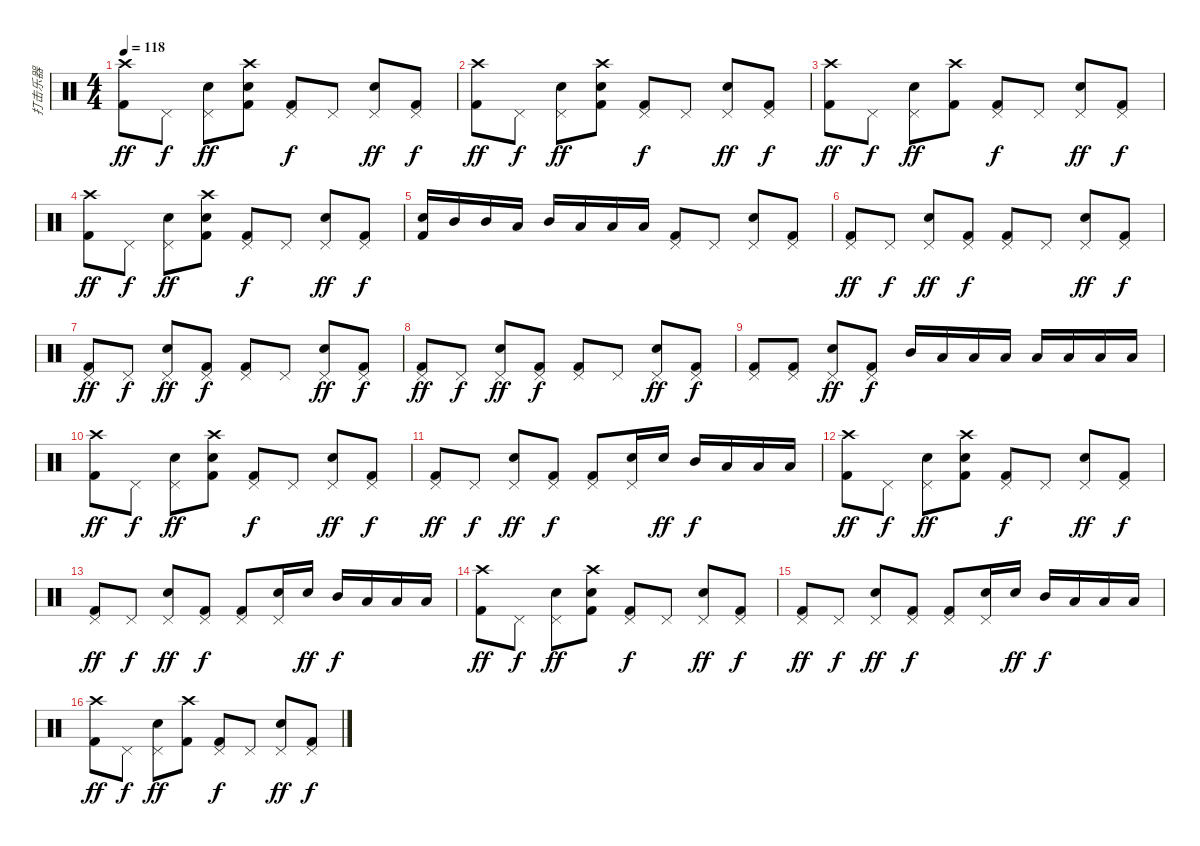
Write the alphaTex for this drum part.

\track ("打击乐器" "打击乐器") {instrument percussion}
\staff {score}
\articulation defaults
\ts (4 4)
\tempo 118
\clef neutral
\ks c
("Crash high (hit)" "Kick (hit) 2").8{dy ff} "Pedal Hi-Hat (hit)".8{dy f} ("Pedal Hi-Hat (hit)" "Snare (hit) 2").8{dy ff} ("Crash high (hit)" "Snare (hit) 2" "Kick (hit) 2").8 ("Pedal Hi-Hat (hit)" "Kick (hit) 2").8{dy f} "Pedal Hi-Hat (hit)".8 ("Pedal Hi-Hat (hit)" "Snare (hit) 2").8{dy ff} ("Pedal Hi-Hat (hit)" "Kick (hit) 2").8{dy f} |
("Crash high (hit)" "Kick (hit) 2").8{dy ff} "Pedal Hi-Hat (hit)".8{dy f} ("Pedal Hi-Hat (hit)" "Snare (hit) 2").8{dy ff} ("Crash high (hit)" "Snare (hit) 2" "Kick (hit) 2").8 ("Pedal Hi-Hat (hit)" "Kick (hit) 2").8{dy f} "Pedal Hi-Hat (hit)".8 ("Pedal Hi-Hat (hit)" "Snare (hit) 2").8{dy ff} ("Pedal Hi-Hat (hit)" "Kick (hit) 2").8{dy f} |
("Crash high (hit)" "Kick (hit) 2").8{dy ff} "Pedal Hi-Hat (hit)".8{dy f} ("Pedal Hi-Hat (hit)" "Snare (hit) 2").8{dy ff} ("Crash high (hit)" "Kick (hit) 2").8 ("Pedal Hi-Hat (hit)" "Kick (hit) 2").8{dy f} "Pedal Hi-Hat (hit)".8 ("Pedal Hi-Hat (hit)" "Snare (hit) 2").8{dy ff} ("Pedal Hi-Hat (hit)" "Kick (hit) 2").8{dy f} |
("Crash high (hit)" "Kick (hit) 2").8{dy ff} "Pedal Hi-Hat (hit)".8{dy f} ("Pedal Hi-Hat (hit)" "Snare (hit) 2").8{dy ff} ("Crash high (hit)" "Snare (hit) 2" "Kick (hit) 2").8 ("Pedal Hi-Hat (hit)" "Kick (hit) 2").8{dy f} "Pedal Hi-Hat (hit)".8 ("Pedal Hi-Hat (hit)" "Snare (hit) 2").8{dy ff} ("Pedal Hi-Hat (hit)" "Kick (hit) 2").8{dy f} |
("Snare (hit) 2" "Kick (hit) 2").16 "Mid Tom (hit)".16 "Mid Tom (hit)".16 "Low Tom (hit)".16 "Mid Tom (hit)".16 "Low Tom (hit)".16 "Low Tom (hit)".16 "Low Tom (hit)".16 ("Pedal Hi-Hat (hit)" "Kick (hit) 2").8 "Pedal Hi-Hat (hit)".8 ("Pedal Hi-Hat (hit)" "Snare (hit) 2").8 ("Pedal Hi-Hat (hit)" "Kick (hit) 2").8 |
("Pedal Hi-Hat (hit)" "Kick (hit) 2").8{dy ff} "Pedal Hi-Hat (hit)".8{dy f} ("Pedal Hi-Hat (hit)" "Snare (hit) 2").8{dy ff} ("Pedal Hi-Hat (hit)" "Kick (hit) 2").8{dy f} ("Pedal Hi-Hat (hit)" "Kick (hit) 2").8 "Pedal Hi-Hat (hit)".8 ("Pedal Hi-Hat (hit)" "Snare (hit) 2").8{dy ff} ("Pedal Hi-Hat (hit)" "Kick (hit) 2").8{dy f} |
("Pedal Hi-Hat (hit)" "Kick (hit) 2").8{dy ff} "Pedal Hi-Hat (hit)".8{dy f} ("Pedal Hi-Hat (hit)" "Snare (hit) 2").8{dy ff} ("Pedal Hi-Hat (hit)" "Kick (hit) 2").8{dy f} ("Pedal Hi-Hat (hit)" "Kick (hit) 2").8 "Pedal Hi-Hat (hit)".8 ("Pedal Hi-Hat (hit)" "Snare (hit) 2").8{dy ff} ("Pedal Hi-Hat (hit)" "Kick (hit) 2").8{dy f} |
("Pedal Hi-Hat (hit)" "Kick (hit) 2").8{dy ff} "Pedal Hi-Hat (hit)".8{dy f} ("Pedal Hi-Hat (hit)" "Snare (hit) 2").8{dy ff} ("Pedal Hi-Hat (hit)" "Kick (hit) 2").8{dy f} ("Pedal Hi-Hat (hit)" "Kick (hit) 2").8 "Pedal Hi-Hat (hit)".8 ("Pedal Hi-Hat (hit)" "Snare (hit) 2").8{dy ff} ("Pedal Hi-Hat (hit)" "Kick (hit) 2").8{dy f} |
("Pedal Hi-Hat (hit)" "Kick (hit) 2").8 ("Pedal Hi-Hat (hit)" "Kick (hit) 2").8 ("Pedal Hi-Hat (hit)" "Snare (hit) 2").8{dy ff} ("Pedal Hi-Hat (hit)" "Kick (hit) 2").8{dy f} "Mid Tom (hit)".16 "Low Tom (hit)".16 "Low Tom (hit)".16 "Low Tom (hit)".16 "Low Floor Tom (hit)".16 "Low Floor Tom (hit)".16 "Low Floor Tom (hit)".16 "Low Floor Tom (hit)".16 |
("Crash high (hit)" "Kick (hit) 2").8{dy ff} "Pedal Hi-Hat (hit)".8{dy f} ("Pedal Hi-Hat (hit)" "Snare (hit) 2").8{dy ff} ("Crash high (hit)" "Snare (hit) 2" "Kick (hit) 2").8 ("Pedal Hi-Hat (hit)" "Kick (hit) 2").8{dy f} "Pedal Hi-Hat (hit)".8 ("Pedal Hi-Hat (hit)" "Snare (hit) 2").8{dy ff} ("Pedal Hi-Hat (hit)" "Kick (hit) 2").8{dy f} |
("Pedal Hi-Hat (hit)" "Kick (hit) 2").8{dy ff} "Pedal Hi-Hat (hit)".8{dy f} ("Pedal Hi-Hat (hit)" "Snare (hit) 2").8{dy ff} ("Pedal Hi-Hat (hit)" "Kick (hit) 2").8{dy f} ("Pedal Hi-Hat (hit)" "Kick (hit) 2").8 ("Pedal Hi-Hat (hit)" "Snare (hit) 2").16 "Snare (hit) 2".16{dy ff} "Mid Tom (hit)".16{dy f} "Low Tom (hit)".16 "Low Floor Tom (hit)".16 "Low Floor Tom (hit)".16 |
("Crash high (hit)" "Kick (hit) 2").8{dy ff} "Pedal Hi-Hat (hit)".8{dy f} ("Pedal Hi-Hat (hit)" "Snare (hit) 2").8{dy ff} ("Crash high (hit)" "Snare (hit) 2" "Kick (hit) 2").8 ("Pedal Hi-Hat (hit)" "Kick (hit) 2").8{dy f} "Pedal Hi-Hat (hit)".8 ("Pedal Hi-Hat (hit)" "Snare (hit) 2").8{dy ff} ("Pedal Hi-Hat (hit)" "Kick (hit) 2").8{dy f} |
("Pedal Hi-Hat (hit)" "Kick (hit) 2").8{dy ff} "Pedal Hi-Hat (hit)".8{dy f} ("Pedal Hi-Hat (hit)" "Snare (hit) 2").8{dy ff} ("Pedal Hi-Hat (hit)" "Kick (hit) 2").8{dy f} ("Pedal Hi-Hat (hit)" "Kick (hit) 2").8 ("Pedal Hi-Hat (hit)" "Snare (hit) 2").16 "Snare (hit) 2".16{dy ff} "Mid Tom (hit)".16{dy f} "Low Tom (hit)".16 "Low Floor Tom (hit)".16 "Low Floor Tom (hit)".16 |
("Crash high (hit)" "Kick (hit) 2").8{dy ff} "Pedal Hi-Hat (hit)".8{dy f} ("Pedal Hi-Hat (hit)" "Snare (hit) 2").8{dy ff} ("Crash high (hit)" "Snare (hit) 2" "Kick (hit) 2").8 ("Pedal Hi-Hat (hit)" "Kick (hit) 2").8{dy f} "Pedal Hi-Hat (hit)".8 ("Pedal Hi-Hat (hit)" "Snare (hit) 2").8{dy ff} ("Pedal Hi-Hat (hit)" "Kick (hit) 2").8{dy f} |
("Pedal Hi-Hat (hit)" "Kick (hit) 2").8{dy ff} "Pedal Hi-Hat (hit)".8{dy f} ("Pedal Hi-Hat (hit)" "Snare (hit) 2").8{dy ff} ("Pedal Hi-Hat (hit)" "Kick (hit) 2").8{dy f} ("Pedal Hi-Hat (hit)" "Kick (hit) 2").8 ("Pedal Hi-Hat (hit)" "Snare (hit) 2").16 "Snare (hit) 2".16{dy ff} "Mid Tom (hit)".16{dy f} "Low Tom (hit)".16 "Low Floor Tom (hit)".16 "Low Floor Tom (hit)".16 |
("Crash high (hit)" "Kick (hit) 2").8{dy ff} "Pedal Hi-Hat (hit)".8{dy f} ("Pedal Hi-Hat (hit)" "Snare (hit) 2").8{dy ff} ("Crash high (hit)" "Kick (hit) 2").8 ("Pedal Hi-Hat (hit)" "Kick (hit) 2").8{dy f} "Pedal Hi-Hat (hit)".8 ("Pedal Hi-Hat (hit)" "Snare (hit) 2").8{dy ff} ("Pedal Hi-Hat (hit)" "Kick (hit) 2").8{dy f}
